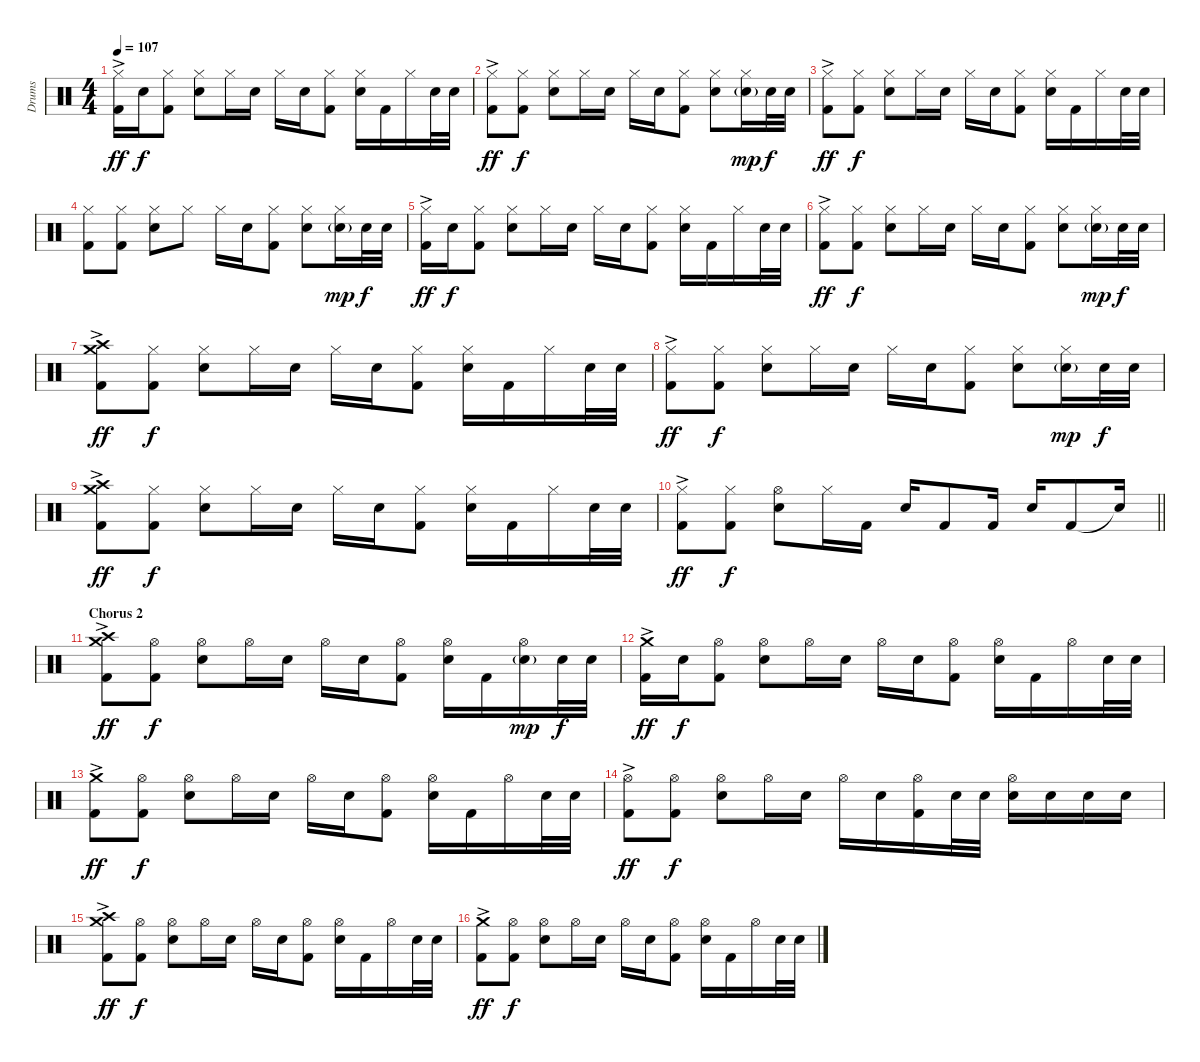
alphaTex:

\track ("Drums" "Drums") {instrument percussion}
\staff {score}
\articulation defaults
\ts (4 4)
\tempo 107
\clef neutral
\ks c
("Hi-Hat (closed)" "Kick (hit) 2"{ac}).16{dy ff} "Electric Snare (hit)".16{dy f} ("Hi-Hat (closed)" "Kick (hit) 2").8 ("Hi-Hat (closed)" "Electric Snare (hit)").8 "Hi-Hat (closed)".16 "Electric Snare (hit)".16 "Hi-Hat (closed)".16 "Electric Snare (hit)".16 ("Hi-Hat (closed)" "Kick (hit) 2").8 ("Hi-Hat (closed)" "Electric Snare (hit)").16 "Kick (hit) 2".16 "Hi-Hat (closed)".16 "Electric Snare (hit)".32 "Electric Snare (hit)".32 |
("Hi-Hat (closed)" "Kick (hit) 2"{ac}).8{dy ff} ("Hi-Hat (closed)" "Kick (hit) 2").8{dy f} ("Hi-Hat (closed)" "Electric Snare (hit)").8 "Hi-Hat (closed)".16 "Electric Snare (hit)".16 "Hi-Hat (closed)".16 "Electric Snare (hit)".16 ("Hi-Hat (closed)" "Kick (hit) 2").8 ("Hi-Hat (closed)" "Electric Snare (hit)").8 ("Hi-Hat (closed)" "Electric Snare (hit)"{g}).16{dy mp} "Electric Snare (hit)".32{dy f} "Electric Snare (hit)".32 |
("Hi-Hat (closed)" "Kick (hit) 2"{ac}).8{dy ff} ("Hi-Hat (closed)" "Kick (hit) 2").8{dy f} ("Hi-Hat (closed)" "Electric Snare (hit)").8 "Hi-Hat (closed)".16 "Electric Snare (hit)".16 "Hi-Hat (closed)".16 "Electric Snare (hit)".16 ("Hi-Hat (closed)" "Kick (hit) 2").8 ("Hi-Hat (closed)" "Electric Snare (hit)").16 "Kick (hit) 2".16 "Hi-Hat (closed)".16 "Electric Snare (hit)".32 "Electric Snare (hit)".32 |
("Hi-Hat (closed)" "Kick (hit) 2").8 ("Hi-Hat (closed)" "Kick (hit) 2").8 ("Hi-Hat (closed)" "Electric Snare (hit)").8 "Hi-Hat (closed)".8 "Hi-Hat (closed)".16 "Electric Snare (hit)".16 ("Hi-Hat (closed)" "Kick (hit) 2").8 ("Hi-Hat (closed)" "Electric Snare (hit)").8 ("Hi-Hat (closed)" "Electric Snare (hit)"{g}).16{dy mp} "Electric Snare (hit)".32{dy f} "Electric Snare (hit)".32 |
("Hi-Hat (closed)" "Kick (hit) 2"{ac}).16{dy ff} "Electric Snare (hit)".16{dy f} ("Hi-Hat (closed)" "Kick (hit) 2").8 ("Hi-Hat (closed)" "Electric Snare (hit)").8 "Hi-Hat (closed)".16 "Electric Snare (hit)".16 "Hi-Hat (closed)".16 "Electric Snare (hit)".16 ("Hi-Hat (closed)" "Kick (hit) 2").8 ("Hi-Hat (closed)" "Electric Snare (hit)").16 "Kick (hit) 2".16 "Hi-Hat (closed)".16 "Electric Snare (hit)".32 "Electric Snare (hit)".32 |
("Hi-Hat (closed)" "Kick (hit) 2"{ac}).8{dy ff} ("Hi-Hat (closed)" "Kick (hit) 2").8{dy f} ("Hi-Hat (closed)" "Electric Snare (hit)").8 "Hi-Hat (closed)".16 "Electric Snare (hit)".16 "Hi-Hat (closed)".16 "Electric Snare (hit)".16 ("Hi-Hat (closed)" "Kick (hit) 2").8 ("Hi-Hat (closed)" "Electric Snare (hit)").8 ("Hi-Hat (closed)" "Electric Snare (hit)"{g}).16{dy mp} "Electric Snare (hit)".32{dy f} "Electric Snare (hit)".32 |
("Crash high (hit)" "Crash medium (hit)" "Kick (hit) 2"{ac}).8{dy ff} ("Hi-Hat (closed)" "Kick (hit) 2").8{dy f} ("Hi-Hat (closed)" "Electric Snare (hit)").8 "Hi-Hat (closed)".16 "Electric Snare (hit)".16 "Hi-Hat (closed)".16 "Electric Snare (hit)".16 ("Hi-Hat (closed)" "Kick (hit) 2").8 ("Hi-Hat (closed)" "Electric Snare (hit)").16 "Kick (hit) 2".16 "Hi-Hat (closed)".16 "Electric Snare (hit)".32 "Electric Snare (hit)".32 |
("Hi-Hat (closed)" "Kick (hit) 2"{ac}).8{dy ff} ("Hi-Hat (closed)" "Kick (hit) 2").8{dy f} ("Hi-Hat (closed)" "Electric Snare (hit)").8 "Hi-Hat (closed)".16 "Electric Snare (hit)".16 "Hi-Hat (closed)".16 "Electric Snare (hit)".16 ("Hi-Hat (closed)" "Kick (hit) 2").8 ("Hi-Hat (closed)" "Electric Snare (hit)").8 ("Hi-Hat (closed)" "Electric Snare (hit)"{g}).16{dy mp} "Electric Snare (hit)".32{dy f} "Electric Snare (hit)".32 |
("Crash high (hit)" "Crash medium (hit)" "Kick (hit) 2"{ac}).8{dy ff} ("Hi-Hat (closed)" "Kick (hit) 2").8{dy f} ("Hi-Hat (closed)" "Electric Snare (hit)").8 "Hi-Hat (closed)".16 "Electric Snare (hit)".16 "Hi-Hat (closed)".16 "Electric Snare (hit)".16 ("Hi-Hat (closed)" "Kick (hit) 2").8 ("Hi-Hat (closed)" "Electric Snare (hit)").16 "Kick (hit) 2".16 "Hi-Hat (closed)".16 "Electric Snare (hit)".32 "Electric Snare (hit)".32 |
\barLineRight lightlight
("Hi-Hat (closed)" "Kick (hit) 2"{ac}).8{dy ff} ("Hi-Hat (closed)" "Kick (hit) 2").8{dy f} ("Hi-Hat (open)" "Electric Snare (hit)").8 "Hi-Hat (closed)".16 "Kick (hit) 2".16{volume 16} "Electric Snare (hit)".16 "Kick (hit) 2".8 "Kick (hit) 2".16 "Electric Snare (hit)".16 "Kick (hit) 2".8 "Snare (hit)"{t}.16 |
\section ("" "Chorus 2")
("Crash high (hit)" "Crash medium (hit)" "Kick (hit) 2"{ac}).8{dy ff} ("Hi-Hat (open)" "Kick (hit) 2").8{dy f} ("Hi-Hat (open)" "Electric Snare (hit)").8 "Hi-Hat (open)".16 "Electric Snare (hit)".16 "Hi-Hat (open)".16 "Electric Snare (hit)".16 ("Hi-Hat (open)" "Kick (hit) 2").8 ("Hi-Hat (open)" "Electric Snare (hit)").16 "Kick (hit) 2".16 ("Hi-Hat (open)" "Electric Snare (hit)"{g}).16{dy mp} "Electric Snare (hit)".32{dy f} "Electric Snare (hit)".32 |
("Crash medium (hit)" "Kick (hit) 2"{ac}).16{dy ff} "Electric Snare (hit)".16{dy f} ("Hi-Hat (open)" "Kick (hit) 2").8 ("Hi-Hat (open)" "Electric Snare (hit)").8 "Hi-Hat (open)".16 "Electric Snare (hit)".16 "Hi-Hat (open)".16 "Electric Snare (hit)".16 ("Hi-Hat (open)" "Kick (hit) 2").8 ("Hi-Hat (open)" "Electric Snare (hit)").16 "Kick (hit) 2".16 "Hi-Hat (open)".16 "Electric Snare (hit)".32 "Electric Snare (hit)".32 |
("Crash medium (hit)" "Kick (hit) 2"{ac}).8{dy ff} ("Hi-Hat (open)" "Kick (hit) 2").8{dy f} ("Hi-Hat (open)" "Electric Snare (hit)").8 "Hi-Hat (open)".16 "Electric Snare (hit)".16 "Hi-Hat (open)".16 "Electric Snare (hit)".16 ("Hi-Hat (open)" "Kick (hit) 2").8 ("Hi-Hat (open)" "Electric Snare (hit)").16 "Kick (hit) 2".16 "Hi-Hat (open)".16 "Electric Snare (hit)".32 "Electric Snare (hit)".32 |
("Hi-Hat (open)" "Kick (hit) 2"{ac}).8{dy ff} ("Hi-Hat (open)" "Kick (hit) 2").8{dy f} ("Hi-Hat (open)" "Electric Snare (hit)").8 "Hi-Hat (open)".16 "Electric Snare (hit)".16 "Hi-Hat (open)".16 "Electric Snare (hit)".16 ("Hi-Hat (open)" "Kick (hit) 2").16 "Electric Snare (hit)".32 "Electric Snare (hit)".32 ("Hi-Hat (open)" "Electric Snare (hit)").16 "Electric Snare (hit)".16 "Electric Snare (hit)".16 "Electric Snare (hit)".16 |
("Crash high (hit)" "Crash medium (hit)" "Kick (hit) 2"{ac}).8{dy ff} ("Hi-Hat (open)" "Kick (hit) 2").8{dy f} ("Hi-Hat (open)" "Electric Snare (hit)").8 "Hi-Hat (open)".16 "Electric Snare (hit)".16 "Hi-Hat (open)".16 "Electric Snare (hit)".16 ("Hi-Hat (open)" "Kick (hit) 2").8 ("Hi-Hat (open)" "Electric Snare (hit)").16 "Kick (hit) 2".16 "Hi-Hat (open)".16 "Electric Snare (hit)".32 "Electric Snare (hit)".32 |
("Crash medium (hit)" "Kick (hit) 2"{ac}).8{dy ff} ("Hi-Hat (open)" "Kick (hit) 2").8{dy f} ("Hi-Hat (open)" "Electric Snare (hit)").8 "Hi-Hat (open)".16 "Electric Snare (hit)".16 "Hi-Hat (open)".16 "Electric Snare (hit)".16 ("Hi-Hat (open)" "Kick (hit) 2").8 ("Hi-Hat (open)" "Electric Snare (hit)").16 "Kick (hit) 2".16 "Hi-Hat (open)".16 "Electric Snare (hit)".32 "Electric Snare (hit)".32
